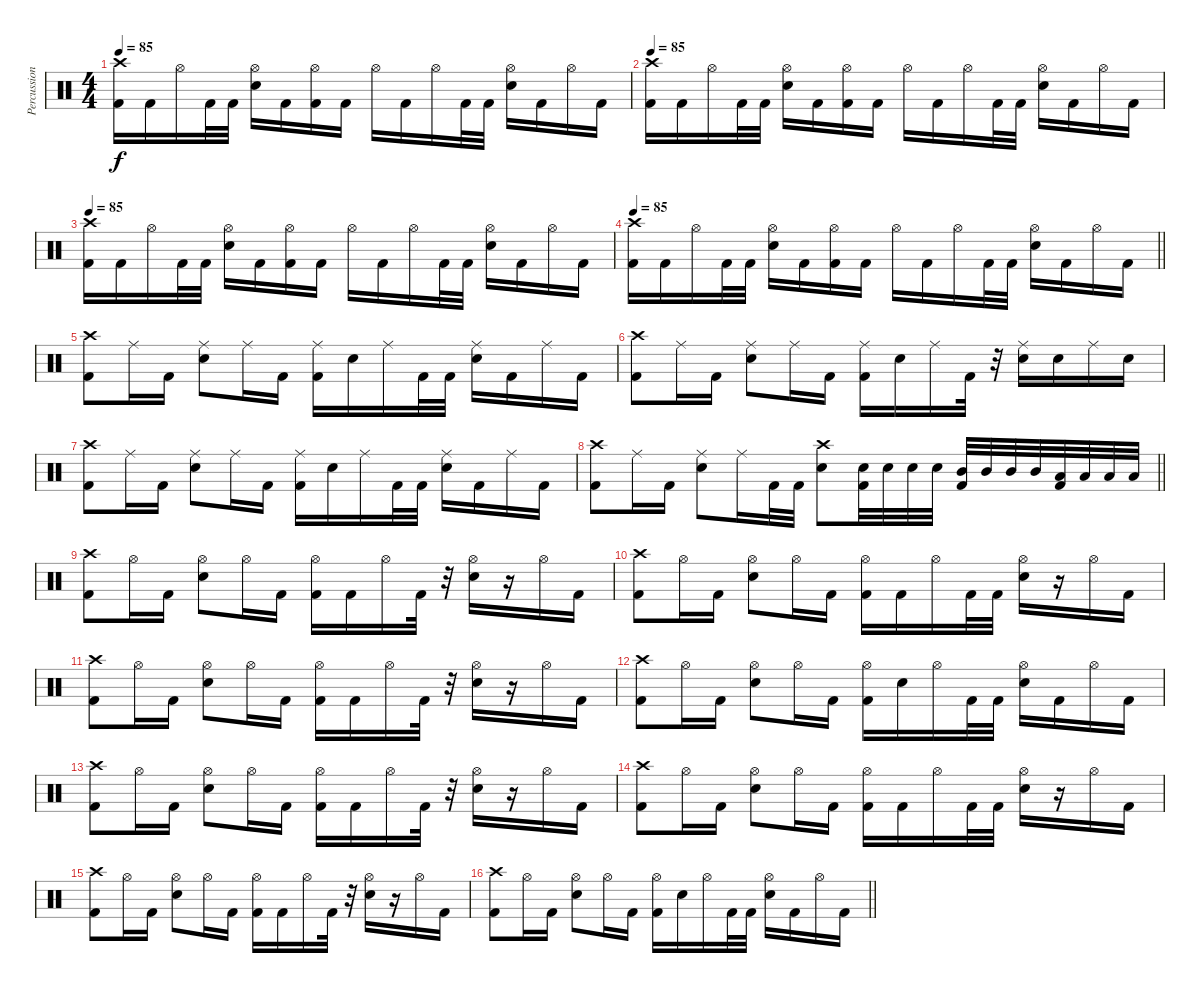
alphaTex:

\track ("Percussion" "Percussion") {instrument percussion}
\staff {score}
\articulation defaults
\ts (4 4)
\tempo 85
\clef neutral
\ks c
("Crash high (hit)" "Kick (hit) 2").16{dy f} "Kick (hit) 2".16 "Hi-Hat (open)".16 "Kick (hit) 2".32 "Kick (hit) 2".32 ("Hi-Hat (open)" "Electric Snare (hit)").16 "Kick (hit) 2".16 ("Hi-Hat (open)" "Kick (hit) 2").16 "Kick (hit) 2".16 "Hi-Hat (open)".16 "Kick (hit) 2".16 "Hi-Hat (open)".16 "Kick (hit) 2".32 "Kick (hit) 2".32 ("Hi-Hat (open)" "Electric Snare (hit)").16 "Kick (hit) 2".16 "Hi-Hat (open)".16 "Kick (hit) 2".16 |
\tempo 85
("Crash high (hit)" "Kick (hit) 2").16 "Kick (hit) 2".16 "Hi-Hat (open)".16 "Kick (hit) 2".32 "Kick (hit) 2".32 ("Hi-Hat (open)" "Electric Snare (hit)").16 "Kick (hit) 2".16 ("Hi-Hat (open)" "Kick (hit) 2").16 "Kick (hit) 2".16 "Hi-Hat (open)".16 "Kick (hit) 2".16 "Hi-Hat (open)".16 "Kick (hit) 2".32 "Kick (hit) 2".32 ("Hi-Hat (open)" "Electric Snare (hit)").16 "Kick (hit) 2".16 "Hi-Hat (open)".16 "Kick (hit) 2".16 |
\tempo 85
("Crash high (hit)" "Kick (hit) 2").16 "Kick (hit) 2".16 "Hi-Hat (open)".16 "Kick (hit) 2".32 "Kick (hit) 2".32 ("Hi-Hat (open)" "Electric Snare (hit)").16 "Kick (hit) 2".16 ("Hi-Hat (open)" "Kick (hit) 2").16 "Kick (hit) 2".16 "Hi-Hat (open)".16 "Kick (hit) 2".16 "Hi-Hat (open)".16 "Kick (hit) 2".32 "Kick (hit) 2".32 ("Hi-Hat (open)" "Electric Snare (hit)").16 "Kick (hit) 2".16 "Hi-Hat (open)".16 "Kick (hit) 2".16 |
\tempo 85
\barLineRight lightlight
("Crash high (hit)" "Kick (hit) 2").16 "Kick (hit) 2".16 "Hi-Hat (open)".16 "Kick (hit) 2".32 "Kick (hit) 2".32 ("Hi-Hat (open)" "Electric Snare (hit)").16 "Kick (hit) 2".16 ("Hi-Hat (open)" "Kick (hit) 2").16 "Kick (hit) 2".16 "Hi-Hat (open)".16 "Kick (hit) 2".16 "Hi-Hat (open)".16 "Kick (hit) 2".32 "Kick (hit) 2".32 ("Hi-Hat (open)" "Electric Snare (hit)").16 "Kick (hit) 2".16 "Hi-Hat (open)".16 "Kick (hit) 2".16 |
("Crash high (hit)" "Kick (hit) 2").8 "Ride (middle)".16 "Kick (hit) 2".16 ("Ride (middle)" "Electric Snare (hit)").8 "Ride (middle)".16 "Kick (hit) 2".16 ("Ride (middle)" "Kick (hit) 2").16 "Electric Snare (hit)".16 "Ride (middle)".16 "Kick (hit) 2".32 "Kick (hit) 2".32 ("Ride (middle)" "Electric Snare (hit)").16 "Kick (hit) 2".16 "Ride (middle)".16 "Kick (hit) 2".16 |
("Crash high (hit)" "Kick (hit) 2").8 "Ride (middle)".16 "Kick (hit) 2".16 ("Ride (middle)" "Electric Snare (hit)").8 "Ride (middle)".16 "Kick (hit) 2".16 ("Ride (middle)" "Kick (hit) 2").16 "Electric Snare (hit)".16 "Ride (middle)".16 "Kick (hit) 2".32 r.32 ("Ride (middle)" "Electric Snare (hit)").16 "Electric Snare (hit)".16 "Ride (middle)".16 "Electric Snare (hit)".16 |
("Crash high (hit)" "Kick (hit) 2").8 "Ride (middle)".16 "Kick (hit) 2".16 ("Ride (middle)" "Electric Snare (hit)").8 "Ride (middle)".16 "Kick (hit) 2".16 ("Ride (middle)" "Kick (hit) 2").16 "Electric Snare (hit)".16 "Ride (middle)".16 "Kick (hit) 2".32 "Kick (hit) 2".32 ("Ride (middle)" "Electric Snare (hit)").16 "Kick (hit) 2".16 "Ride (middle)".16 "Kick (hit) 2".16 |
\barLineRight lightlight
("Crash high (hit)" "Kick (hit) 2").8 "Ride (middle)".16 "Kick (hit) 2".16 ("Ride (middle)" "Electric Snare (hit)").8 "Ride (middle)".16 "Kick (hit) 2".32 "Kick (hit) 2".32 ("Crash high (hit)" "Electric Snare (hit)").8 ("Electric Snare (hit)" "Kick (hit) 2").32 "Electric Snare (hit)".32 "Electric Snare (hit)".32 "Electric Snare (hit)".32 ("Mid Tom (hit)" "Kick (hit) 2").32 "Mid Tom (hit)".32 "Mid Tom (hit)".32 "Mid Tom (hit)".32 ("Low Tom (hit)" "Kick (hit) 2").32 "Low Tom (hit)".32 "Low Tom (hit)".32 "Low Tom (hit)".32 |
("Crash high (hit)" "Kick (hit) 2").8 "Hi-Hat (open)".16 "Kick (hit) 2".16 ("Hi-Hat (open)" "Electric Snare (hit)").8 "Hi-Hat (open)".16 "Kick (hit) 2".16 ("Hi-Hat (open)" "Kick (hit) 2").16 "Kick (hit) 2".16 "Hi-Hat (open)".16 "Kick (hit) 2".32 r.32 ("Hi-Hat (open)" "Electric Snare (hit)").16 r.16 "Hi-Hat (open)".16 "Kick (hit) 2".16 |
("Crash high (hit)" "Kick (hit) 2").8 "Hi-Hat (open)".16 "Kick (hit) 2".16 ("Hi-Hat (open)" "Electric Snare (hit)").8 "Hi-Hat (open)".16 "Kick (hit) 2".16 ("Hi-Hat (open)" "Kick (hit) 2").16 "Kick (hit) 2".16 "Hi-Hat (open)".16 "Kick (hit) 2".32 "Kick (hit) 2".32 ("Hi-Hat (open)" "Electric Snare (hit)").16 r.16 "Hi-Hat (open)".16 "Kick (hit) 2".16 |
("Crash high (hit)" "Kick (hit) 2").8 "Hi-Hat (open)".16 "Kick (hit) 2".16 ("Hi-Hat (open)" "Electric Snare (hit)").8 "Hi-Hat (open)".16 "Kick (hit) 2".16 ("Hi-Hat (open)" "Kick (hit) 2").16 "Kick (hit) 2".16 "Hi-Hat (open)".16 "Kick (hit) 2".32 r.32 ("Hi-Hat (open)" "Electric Snare (hit)").16 r.16 "Hi-Hat (open)".16 "Kick (hit) 2".16 |
("Crash high (hit)" "Kick (hit) 2").8 "Hi-Hat (open)".16 "Kick (hit) 2".16 ("Hi-Hat (open)" "Electric Snare (hit)").8 "Hi-Hat (open)".16 "Kick (hit) 2".16 ("Hi-Hat (open)" "Kick (hit) 2").16 "Electric Snare (hit)".16 "Hi-Hat (open)".16 "Kick (hit) 2".32 "Kick (hit) 2".32 ("Hi-Hat (open)" "Electric Snare (hit)").16 "Kick (hit) 2".16 "Hi-Hat (open)".16 "Kick (hit) 2".16 |
("Crash high (hit)" "Kick (hit) 2").8 "Hi-Hat (open)".16 "Kick (hit) 2".16 ("Hi-Hat (open)" "Electric Snare (hit)").8 "Hi-Hat (open)".16 "Kick (hit) 2".16 ("Hi-Hat (open)" "Kick (hit) 2").16 "Kick (hit) 2".16 "Hi-Hat (open)".16 "Kick (hit) 2".32 r.32 ("Hi-Hat (open)" "Electric Snare (hit)").16 r.16 "Hi-Hat (open)".16 "Kick (hit) 2".16 |
("Crash high (hit)" "Kick (hit) 2").8 "Hi-Hat (open)".16 "Kick (hit) 2".16 ("Hi-Hat (open)" "Electric Snare (hit)").8 "Hi-Hat (open)".16 "Kick (hit) 2".16 ("Hi-Hat (open)" "Kick (hit) 2").16 "Kick (hit) 2".16 "Hi-Hat (open)".16 "Kick (hit) 2".32 "Kick (hit) 2".32 ("Hi-Hat (open)" "Electric Snare (hit)").16 r.16 "Hi-Hat (open)".16 "Kick (hit) 2".16 |
("Crash high (hit)" "Kick (hit) 2").8 "Hi-Hat (open)".16 "Kick (hit) 2".16 ("Hi-Hat (open)" "Electric Snare (hit)").8 "Hi-Hat (open)".16 "Kick (hit) 2".16 ("Hi-Hat (open)" "Kick (hit) 2").16 "Kick (hit) 2".16 "Hi-Hat (open)".16 "Kick (hit) 2".32 r.32 ("Hi-Hat (open)" "Electric Snare (hit)").16 r.16 "Hi-Hat (open)".16 "Kick (hit) 2".16 |
\barLineRight lightlight
("Crash high (hit)" "Kick (hit) 2").8 "Hi-Hat (open)".16 "Kick (hit) 2".16 ("Hi-Hat (open)" "Electric Snare (hit)").8 "Hi-Hat (open)".16 "Kick (hit) 2".16 ("Hi-Hat (open)" "Kick (hit) 2").16 "Electric Snare (hit)".16 "Hi-Hat (open)".16 "Kick (hit) 2".32 "Kick (hit) 2".32 ("Hi-Hat (open)" "Electric Snare (hit)").16 "Kick (hit) 2".16 "Hi-Hat (open)".16 "Kick (hit) 2".16
